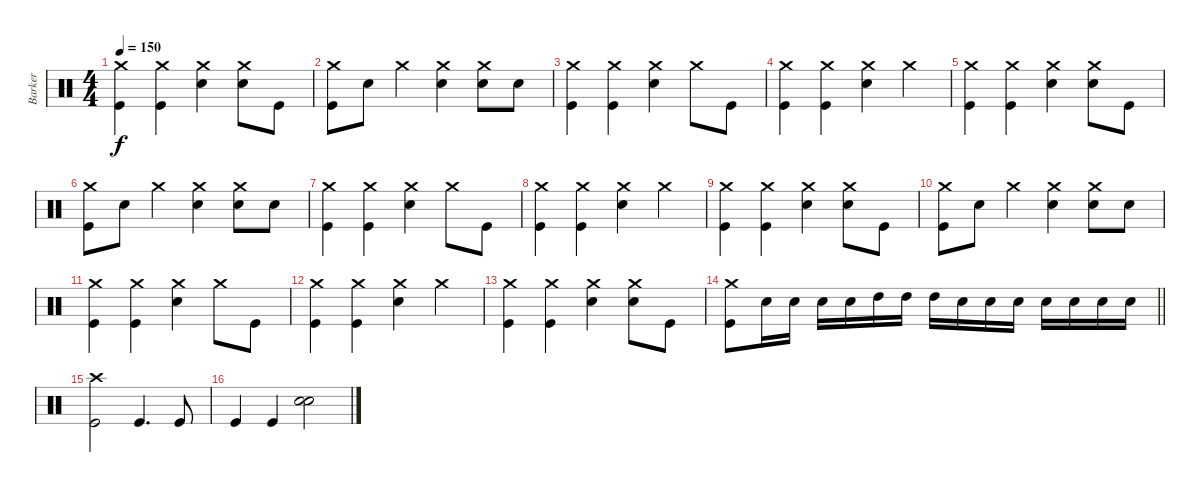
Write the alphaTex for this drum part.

\track ("Barker" "Barker") {instrument percussion}
\staff {score}
\articulation defaults
\ts (4 4)
\tempo 150
\clef neutral
\ks c
("Crash medium (hit)" "Kick (hit)").4{dy f} ("Crash medium (hit)" "Kick (hit)").4 ("Crash medium (hit)" "Electric Snare (hit)").4 ("Crash medium (hit)" "Electric Snare (hit)").8 "Kick (hit)".8 |
("Crash medium (hit)" "Kick (hit)").8 "Electric Snare (hit)".8 "Crash medium (hit)".4 ("Crash medium (hit)" "Electric Snare (hit)").4 ("Electric Snare (hit)" "Crash medium (hit)").8 "Electric Snare (hit)".8 |
("Crash medium (hit)" "Kick (hit)").4 ("Crash medium (hit)" "Kick (hit)").4 ("Crash medium (hit)" "Electric Snare (hit)").4 "Crash medium (hit)".8 "Kick (hit)".8 |
("Crash medium (hit)" "Kick (hit)").4 ("Crash medium (hit)" "Kick (hit)").4 ("Crash medium (hit)" "Electric Snare (hit)").4 "Crash medium (hit)".4 |
("Crash medium (hit)" "Kick (hit)").4 ("Crash medium (hit)" "Kick (hit)").4 ("Crash medium (hit)" "Electric Snare (hit)").4 ("Crash medium (hit)" "Electric Snare (hit)").8 "Kick (hit)".8 |
("Crash medium (hit)" "Kick (hit)").8 "Electric Snare (hit)".8 "Crash medium (hit)".4 ("Crash medium (hit)" "Electric Snare (hit)").4 ("Electric Snare (hit)" "Crash medium (hit)").8 "Electric Snare (hit)".8 |
("Crash medium (hit)" "Kick (hit)").4 ("Crash medium (hit)" "Kick (hit)").4 ("Crash medium (hit)" "Electric Snare (hit)").4 "Crash medium (hit)".8 "Kick (hit)".8 |
("Crash medium (hit)" "Kick (hit)").4 ("Crash medium (hit)" "Kick (hit)").4 ("Crash medium (hit)" "Electric Snare (hit)").4 "Crash medium (hit)".4 |
("Crash medium (hit)" "Kick (hit)").4 ("Crash medium (hit)" "Kick (hit)").4 ("Crash medium (hit)" "Electric Snare (hit)").4 ("Crash medium (hit)" "Electric Snare (hit)").8 "Kick (hit)".8 |
("Crash medium (hit)" "Kick (hit)").8 "Electric Snare (hit)".8 "Crash medium (hit)".4 ("Crash medium (hit)" "Electric Snare (hit)").4 ("Electric Snare (hit)" "Crash medium (hit)").8 "Electric Snare (hit)".8 |
("Crash medium (hit)" "Kick (hit)").4 ("Crash medium (hit)" "Kick (hit)").4 ("Crash medium (hit)" "Electric Snare (hit)").4 "Crash medium (hit)".8 "Kick (hit)".8 |
("Crash medium (hit)" "Kick (hit)").4 ("Crash medium (hit)" "Kick (hit)").4 ("Crash medium (hit)" "Electric Snare (hit)").4 "Crash medium (hit)".4 |
("Crash medium (hit)" "Kick (hit)").4 ("Crash medium (hit)" "Kick (hit)").4 ("Crash medium (hit)" "Electric Snare (hit)").4 ("Crash medium (hit)" "Electric Snare (hit)").8 "Kick (hit)".8 |
\barLineRight lightlight
("Crash medium (hit)" "Kick (hit)").8 "Electric Snare (hit)".16 "Electric Snare (hit)".16 "Electric Snare (hit)".16 "Electric Snare (hit)".16 "High Tom (hit)".16 "High Tom (hit)".16 "High Tom (hit)".16 "Electric Snare (hit)".16 "Electric Snare (hit)".16 "Electric Snare (hit)".16 "Electric Snare (hit)".16 "Electric Snare (hit)".16 "Electric Snare (hit)".16 "Electric Snare (hit)".16 |
("Kick (hit)" "Crash high (hit)").2 "Kick (hit)".4{d} "Kick (hit)".8 |
"Kick (hit)".4 "Kick (hit)".4 ("Hand Clap (hit)" "Electric Snare (hit)").2
